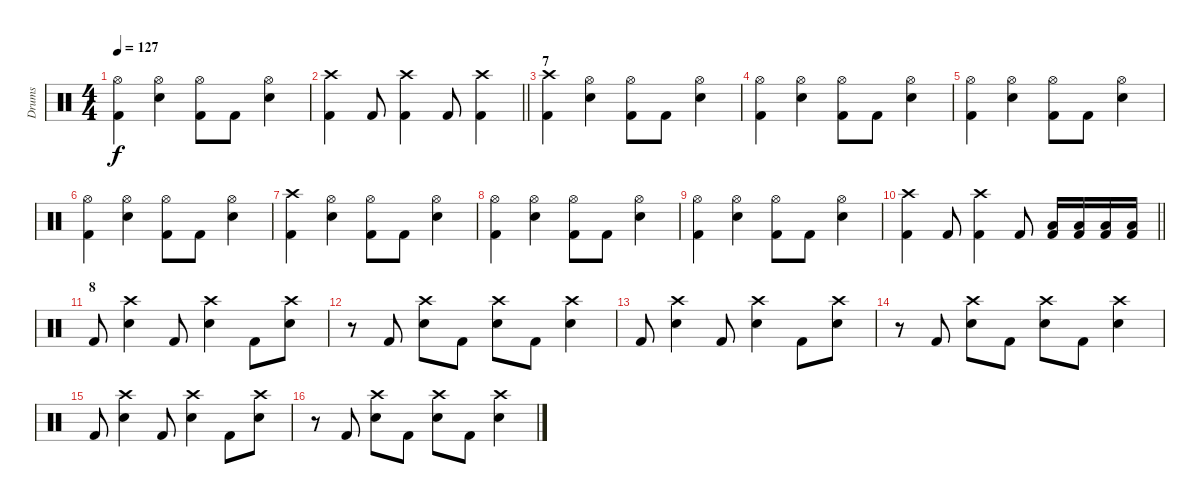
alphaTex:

\track ("Drums" "Drums") {instrument percussion}
\staff {score}
\articulation defaults
\ts (4 4)
\tempo 127
\clef neutral
\ks c
("Hi-Hat (open)" "Kick (hit) 2").4{dy f} ("Hi-Hat (open)" "Snare (hit) 2").4 ("Hi-Hat (open)" "Kick (hit) 2").8 "Kick (hit) 2".8 ("Hi-Hat (open)" "Snare (hit) 2").4 |
\barLineRight lightlight
("Crash high (hit)" "Kick (hit) 2").4 "Kick (hit) 2".8 ("Crash high (hit)" "Kick (hit) 2").4 "Kick (hit) 2".8 ("Crash high (hit)" "Kick (hit) 2").4 |
\section ("" "7")
("Crash high (hit)" "Kick (hit) 2").4 ("Hi-Hat (open)" "Snare (hit) 2").4 ("Hi-Hat (open)" "Kick (hit) 2").8 "Kick (hit) 2".8 ("Hi-Hat (open)" "Snare (hit) 2").4 |
("Hi-Hat (open)" "Kick (hit) 2").4 ("Hi-Hat (open)" "Snare (hit) 2").4 ("Hi-Hat (open)" "Kick (hit) 2").8 "Kick (hit) 2".8 ("Hi-Hat (open)" "Snare (hit) 2").4 |
("Hi-Hat (open)" "Kick (hit) 2").4 ("Hi-Hat (open)" "Snare (hit) 2").4 ("Hi-Hat (open)" "Kick (hit) 2").8 "Kick (hit) 2".8 ("Hi-Hat (open)" "Snare (hit) 2").4 |
("Hi-Hat (open)" "Kick (hit) 2").4 ("Hi-Hat (open)" "Snare (hit) 2").4 ("Hi-Hat (open)" "Kick (hit) 2").8 "Kick (hit) 2".8 ("Hi-Hat (open)" "Snare (hit) 2").4 |
("Crash high (hit)" "Kick (hit) 2").4 ("Hi-Hat (open)" "Snare (hit) 2").4 ("Hi-Hat (open)" "Kick (hit) 2").8 "Kick (hit) 2".8 ("Hi-Hat (open)" "Snare (hit) 2").4 |
("Hi-Hat (open)" "Kick (hit) 2").4 ("Hi-Hat (open)" "Snare (hit) 2").4 ("Hi-Hat (open)" "Kick (hit) 2").8 "Kick (hit) 2".8 ("Hi-Hat (open)" "Snare (hit) 2").4 |
("Hi-Hat (open)" "Kick (hit) 2").4 ("Hi-Hat (open)" "Snare (hit) 2").4 ("Hi-Hat (open)" "Kick (hit) 2").8 "Kick (hit) 2".8 ("Hi-Hat (open)" "Snare (hit) 2").4 |
\barLineRight lightlight
("Crash high (hit)" "Kick (hit) 2").4 "Kick (hit) 2".8 ("Crash high (hit)" "Kick (hit) 2").4 "Kick (hit) 2".8 ("Low Tom (hit)" "Kick (hit) 2").16 ("Low Tom (hit)" "Kick (hit) 2").16 ("Low Tom (hit)" "Kick (hit) 2").16 ("Low Tom (hit)" "Kick (hit) 2").16 |
\section ("" "8")
"Kick (hit) 2".8 ("Crash high (hit)" "Snare (hit) 2").4 "Kick (hit) 2".8 ("Crash high (hit)" "Snare (hit) 2").4 "Kick (hit) 2".8 ("Crash high (hit)" "Snare (hit) 2").8 |
r.8 "Kick (hit) 2".8 ("Crash high (hit)" "Snare (hit) 2").8 "Kick (hit) 2".8 ("Crash high (hit)" "Snare (hit) 2").8 "Kick (hit) 2".8 ("Crash high (hit)" "Snare (hit) 2").4 |
"Kick (hit) 2".8 ("Crash high (hit)" "Snare (hit) 2").4 "Kick (hit) 2".8 ("Crash high (hit)" "Snare (hit) 2").4 "Kick (hit) 2".8 ("Crash high (hit)" "Snare (hit) 2").8 |
r.8 "Kick (hit) 2".8 ("Crash high (hit)" "Snare (hit) 2").8 "Kick (hit) 2".8 ("Crash high (hit)" "Snare (hit) 2").8 "Kick (hit) 2".8 ("Crash high (hit)" "Snare (hit) 2").4 |
"Kick (hit) 2".8 ("Crash high (hit)" "Snare (hit) 2").4 "Kick (hit) 2".8 ("Crash high (hit)" "Snare (hit) 2").4 "Kick (hit) 2".8 ("Crash high (hit)" "Snare (hit) 2").8 |
r.8 "Kick (hit) 2".8 ("Crash high (hit)" "Snare (hit) 2").8 "Kick (hit) 2".8 ("Crash high (hit)" "Snare (hit) 2").8 "Kick (hit) 2".8 ("Crash high (hit)" "Snare (hit) 2").4
